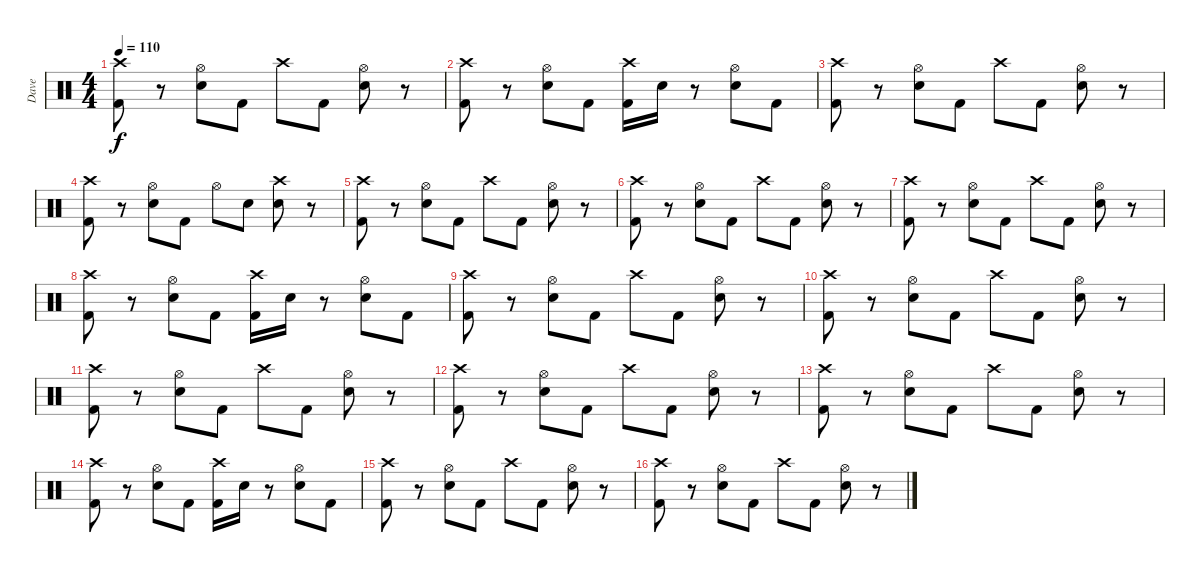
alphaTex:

\track ("Dave" "Dave") {instrument percussion}
\staff {score}
\articulation defaults
\ts (4 4)
\tempo 110
\clef neutral
\ks c
("Crash high (hit)" "Kick (hit) 2").8{dy f} r.8 ("Hi-Hat (open)" "Snare (hit) 2").8 "Kick (hit) 2".8 "Crash high (hit)".8 "Kick (hit) 2".8 ("Hi-Hat (open)" "Snare (hit) 2").8 r.8 |
("Crash high (hit)" "Kick (hit) 2").8 r.8 ("Hi-Hat (open)" "Snare (hit) 2").8 "Kick (hit) 2".8 ("Crash high (hit)" "Kick (hit) 2").16 "Snare (hit) 2".16 r.8 ("Hi-Hat (open)" "Snare (hit) 2").8 "Kick (hit) 2".8 |
("Crash high (hit)" "Kick (hit) 2").8 r.8 ("Hi-Hat (open)" "Snare (hit) 2").8 "Kick (hit) 2".8 "Crash high (hit)".8 "Kick (hit) 2".8 ("Hi-Hat (open)" "Snare (hit) 2").8 r.8 |
("Crash high (hit)" "Kick (hit) 2").8 r.8 ("Hi-Hat (open)" "Snare (hit) 2").8 "Kick (hit) 2".8 "Hi-Hat (open)".8 "Snare (hit) 2".8 ("Crash high (hit)" "Snare (hit) 2").8 r.8 |
("Crash high (hit)" "Kick (hit) 2").8 r.8 ("Hi-Hat (open)" "Snare (hit) 2").8 "Kick (hit) 2".8 "Crash high (hit)".8 "Kick (hit) 2".8 ("Hi-Hat (open)" "Snare (hit) 2").8 r.8 |
("Crash high (hit)" "Kick (hit) 2").8 r.8 ("Hi-Hat (open)" "Snare (hit) 2").8 "Kick (hit) 2".8 "Crash high (hit)".8 "Kick (hit) 2".8 ("Hi-Hat (open)" "Snare (hit) 2").8 r.8 |
("Crash high (hit)" "Kick (hit) 2").8 r.8 ("Hi-Hat (open)" "Snare (hit) 2").8 "Kick (hit) 2".8 "Crash high (hit)".8 "Kick (hit) 2".8 ("Hi-Hat (open)" "Snare (hit) 2").8 r.8 |
("Crash high (hit)" "Kick (hit) 2").8 r.8 ("Hi-Hat (open)" "Snare (hit) 2").8 "Kick (hit) 2".8 ("Crash high (hit)" "Kick (hit) 2").16 "Snare (hit) 2".16 r.8 ("Hi-Hat (open)" "Snare (hit) 2").8 "Kick (hit) 2".8 |
("Crash high (hit)" "Kick (hit) 2").8 r.8 ("Hi-Hat (open)" "Snare (hit) 2").8 "Kick (hit) 2".8 "Crash high (hit)".8 "Kick (hit) 2".8 ("Hi-Hat (open)" "Snare (hit) 2").8 r.8 |
("Crash high (hit)" "Kick (hit) 2").8 r.8 ("Hi-Hat (open)" "Snare (hit) 2").8 "Kick (hit) 2".8 "Crash high (hit)".8 "Kick (hit) 2".8 ("Hi-Hat (open)" "Snare (hit) 2").8 r.8 |
("Crash high (hit)" "Kick (hit) 2").8 r.8 ("Hi-Hat (open)" "Snare (hit) 2").8 "Kick (hit) 2".8 "Crash high (hit)".8 "Kick (hit) 2".8 ("Hi-Hat (open)" "Snare (hit) 2").8 r.8 |
("Crash high (hit)" "Kick (hit) 2").8 r.8 ("Hi-Hat (open)" "Snare (hit) 2").8 "Kick (hit) 2".8 "Crash high (hit)".8 "Kick (hit) 2".8 ("Hi-Hat (open)" "Snare (hit) 2").8 r.8 |
("Crash high (hit)" "Kick (hit) 2").8 r.8 ("Hi-Hat (open)" "Snare (hit) 2").8 "Kick (hit) 2".8 "Crash high (hit)".8 "Kick (hit) 2".8 ("Hi-Hat (open)" "Snare (hit) 2").8 r.8 |
("Crash high (hit)" "Kick (hit) 2").8 r.8 ("Hi-Hat (open)" "Snare (hit) 2").8 "Kick (hit) 2".8 ("Crash high (hit)" "Kick (hit) 2").16 "Snare (hit) 2".16 r.8 ("Hi-Hat (open)" "Snare (hit) 2").8 "Kick (hit) 2".8 |
("Crash high (hit)" "Kick (hit) 2").8 r.8 ("Hi-Hat (open)" "Snare (hit) 2").8 "Kick (hit) 2".8 "Crash high (hit)".8 "Kick (hit) 2".8 ("Hi-Hat (open)" "Snare (hit) 2").8 r.8 |
("Crash high (hit)" "Kick (hit) 2").8 r.8 ("Hi-Hat (open)" "Snare (hit) 2").8 "Kick (hit) 2".8 "Crash high (hit)".8 "Kick (hit) 2".8 ("Hi-Hat (open)" "Snare (hit) 2").8 r.8
